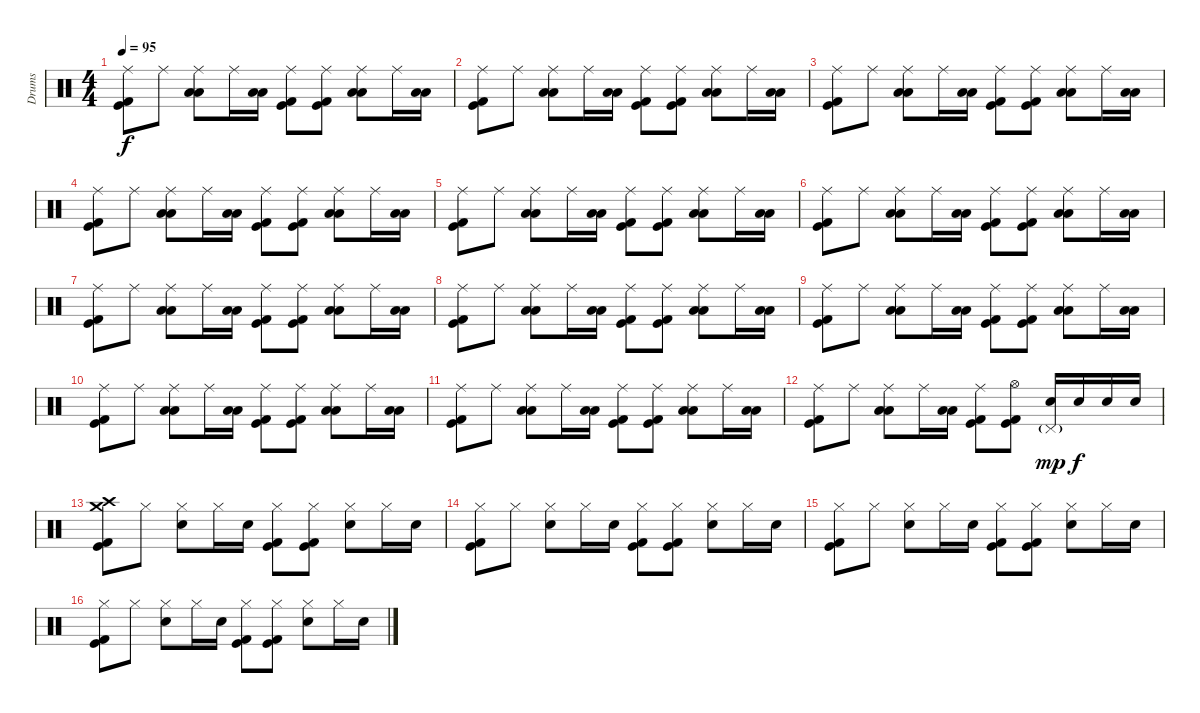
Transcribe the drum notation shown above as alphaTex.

\track ("Drums" "Drums") {instrument percussion}
\staff {score}
\articulation defaults
\ts (4 4)
\tempo 95
\clef neutral
\ks c
("Ride (middle)" "Kick (hit) 2" "Kick (hit)").8{dy f} "Ride (middle)".8 ("Ride (middle)" "Low Floor Tom (hit)" "Low Tom (hit)").8 "Ride (middle)".16 ("Low Floor Tom (hit)" "Low Tom (hit)").16 ("Ride (middle)" "Kick (hit) 2" "Kick (hit)").8 ("Ride (middle)" "Kick (hit) 2" "Kick (hit)").8 ("Ride (middle)" "Low Floor Tom (hit)" "Low Tom (hit)").8 "Ride (middle)".16 ("Low Floor Tom (hit)" "Low Tom (hit)").16 |
("Ride (middle)" "Kick (hit) 2" "Kick (hit)").8 "Ride (middle)".8 ("Ride (middle)" "Low Floor Tom (hit)" "Low Tom (hit)").8 "Ride (middle)".16 ("Low Floor Tom (hit)" "Low Tom (hit)").16 ("Ride (middle)" "Kick (hit) 2" "Kick (hit)").8 ("Ride (middle)" "Kick (hit) 2" "Kick (hit)").8 ("Ride (middle)" "Low Floor Tom (hit)" "Low Tom (hit)").8 "Ride (middle)".16 ("Low Floor Tom (hit)" "Low Tom (hit)").16 |
("Ride (middle)" "Kick (hit) 2" "Kick (hit)").8 "Ride (middle)".8 ("Ride (middle)" "Low Floor Tom (hit)" "Low Tom (hit)").8 "Ride (middle)".16 ("Low Floor Tom (hit)" "Low Tom (hit)").16 ("Ride (middle)" "Kick (hit) 2" "Kick (hit)").8 ("Ride (middle)" "Kick (hit) 2" "Kick (hit)").8 ("Ride (middle)" "Low Floor Tom (hit)" "Low Tom (hit)").8 "Ride (middle)".16 ("Low Floor Tom (hit)" "Low Tom (hit)").16 |
("Ride (middle)" "Kick (hit) 2" "Kick (hit)").8 "Ride (middle)".8 ("Ride (middle)" "Low Floor Tom (hit)" "Low Tom (hit)").8 "Ride (middle)".16 ("Low Floor Tom (hit)" "Low Tom (hit)").16 ("Ride (middle)" "Kick (hit) 2" "Kick (hit)").8 ("Ride (middle)" "Kick (hit) 2" "Kick (hit)").8 ("Ride (middle)" "Low Floor Tom (hit)" "Low Tom (hit)").8 "Ride (middle)".16 ("Low Floor Tom (hit)" "Low Tom (hit)").16 |
("Ride (middle)" "Kick (hit) 2" "Kick (hit)").8 "Ride (middle)".8 ("Ride (middle)" "Low Floor Tom (hit)" "Low Tom (hit)").8 "Ride (middle)".16 ("Low Floor Tom (hit)" "Low Tom (hit)").16 ("Ride (middle)" "Kick (hit) 2" "Kick (hit)").8 ("Ride (middle)" "Kick (hit) 2" "Kick (hit)").8 ("Ride (middle)" "Low Floor Tom (hit)" "Low Tom (hit)").8 "Ride (middle)".16 ("Low Floor Tom (hit)" "Low Tom (hit)").16 |
("Ride (middle)" "Kick (hit) 2" "Kick (hit)").8 "Ride (middle)".8 ("Ride (middle)" "Low Floor Tom (hit)" "Low Tom (hit)").8 "Ride (middle)".16 ("Low Floor Tom (hit)" "Low Tom (hit)").16 ("Ride (middle)" "Kick (hit) 2" "Kick (hit)").8 ("Ride (middle)" "Kick (hit) 2" "Kick (hit)").8 ("Ride (middle)" "Low Floor Tom (hit)" "Low Tom (hit)").8 "Ride (middle)".16 ("Low Floor Tom (hit)" "Low Tom (hit)").16 |
("Ride (middle)" "Kick (hit) 2" "Kick (hit)").8 "Ride (middle)".8 ("Ride (middle)" "Low Floor Tom (hit)" "Low Tom (hit)").8 "Ride (middle)".16 ("Low Floor Tom (hit)" "Low Tom (hit)").16 ("Ride (middle)" "Kick (hit) 2" "Kick (hit)").8 ("Ride (middle)" "Kick (hit) 2" "Kick (hit)").8 ("Ride (middle)" "Low Floor Tom (hit)" "Low Tom (hit)").8 "Ride (middle)".16 ("Low Floor Tom (hit)" "Low Tom (hit)").16 |
("Ride (middle)" "Kick (hit) 2" "Kick (hit)").8 "Ride (middle)".8 ("Ride (middle)" "Low Floor Tom (hit)" "Low Tom (hit)").8 "Ride (middle)".16 ("Low Floor Tom (hit)" "Low Tom (hit)").16 ("Ride (middle)" "Kick (hit) 2" "Kick (hit)").8 ("Ride (middle)" "Kick (hit) 2" "Kick (hit)").8 ("Ride (middle)" "Low Floor Tom (hit)" "Low Tom (hit)").8 "Ride (middle)".16 ("Low Floor Tom (hit)" "Low Tom (hit)").16 |
("Ride (middle)" "Kick (hit) 2" "Kick (hit)").8 "Ride (middle)".8 ("Ride (middle)" "Low Floor Tom (hit)" "Low Tom (hit)").8 "Ride (middle)".16 ("Low Floor Tom (hit)" "Low Tom (hit)").16 ("Ride (middle)" "Kick (hit) 2" "Kick (hit)").8 ("Ride (middle)" "Kick (hit) 2" "Kick (hit)").8 ("Ride (middle)" "Low Floor Tom (hit)" "Low Tom (hit)").8 "Ride (middle)".16 ("Low Floor Tom (hit)" "Low Tom (hit)").16 |
("Ride (middle)" "Kick (hit) 2" "Kick (hit)").8 "Ride (middle)".8 ("Ride (middle)" "Low Floor Tom (hit)" "Low Tom (hit)").8 "Ride (middle)".16 ("Low Floor Tom (hit)" "Low Tom (hit)").16 ("Ride (middle)" "Kick (hit) 2" "Kick (hit)").8 ("Ride (middle)" "Kick (hit) 2" "Kick (hit)").8 ("Ride (middle)" "Low Floor Tom (hit)" "Low Tom (hit)").8 "Ride (middle)".16 ("Low Floor Tom (hit)" "Low Tom (hit)").16 |
("Ride (middle)" "Kick (hit) 2" "Kick (hit)").8 "Ride (middle)".8 ("Ride (middle)" "Low Floor Tom (hit)" "Low Tom (hit)").8 "Ride (middle)".16 ("Low Floor Tom (hit)" "Low Tom (hit)").16 ("Ride (middle)" "Kick (hit) 2" "Kick (hit)").8 ("Ride (middle)" "Kick (hit) 2" "Kick (hit)").8 ("Ride (middle)" "Low Floor Tom (hit)" "Low Tom (hit)").8 "Ride (middle)".16 ("Low Floor Tom (hit)" "Low Tom (hit)").16 |
("Ride (middle)" "Kick (hit) 2" "Kick (hit)").8 "Ride (middle)".8 ("Ride (middle)" "Low Floor Tom (hit)" "Low Tom (hit)").8 "Ride (middle)".16 ("Low Floor Tom (hit)" "Low Tom (hit)").16 ("Ride (middle)" "Kick (hit) 2" "Kick (hit)").8 ("Hi-Hat (open)" "Kick (hit) 2" "Kick (hit)").8 ("Pedal Hi-Hat (hit)"{g} "Snare (hit) 2").16{dy mp} "Snare (hit) 2".16{dy f} "Snare (hit) 2".16 "Snare (hit) 2".16 |
("Crash high (hit)" "Crash medium (hit)" "Kick (hit) 2" "Kick (hit)").8 "Hi-Hat (closed)".8 ("Hi-Hat (closed)" "Snare (hit) 2").8 "Hi-Hat (closed)".16 "Snare (hit) 2".16 ("Hi-Hat (closed)" "Kick (hit) 2" "Kick (hit)").8 ("Hi-Hat (closed)" "Kick (hit) 2" "Kick (hit)").8 ("Hi-Hat (closed)" "Snare (hit) 2").8 "Hi-Hat (closed)".16 "Snare (hit) 2".16 |
("Hi-Hat (closed)" "Kick (hit) 2" "Kick (hit)").8 "Hi-Hat (closed)".8 ("Hi-Hat (closed)" "Snare (hit) 2").8 "Hi-Hat (closed)".16 "Snare (hit) 2".16 ("Hi-Hat (closed)" "Kick (hit) 2" "Kick (hit)").8 ("Hi-Hat (closed)" "Kick (hit) 2" "Kick (hit)").8 ("Hi-Hat (closed)" "Snare (hit) 2").8 "Hi-Hat (closed)".16 "Snare (hit) 2".16 |
("Hi-Hat (closed)" "Kick (hit) 2" "Kick (hit)").8 "Hi-Hat (closed)".8 ("Hi-Hat (closed)" "Snare (hit) 2").8 "Hi-Hat (closed)".16 "Snare (hit) 2".16 ("Hi-Hat (closed)" "Kick (hit) 2" "Kick (hit)").8 ("Hi-Hat (closed)" "Kick (hit) 2" "Kick (hit)").8 ("Hi-Hat (closed)" "Snare (hit) 2").8 "Hi-Hat (closed)".16 "Snare (hit) 2".16 |
("Hi-Hat (closed)" "Kick (hit) 2" "Kick (hit)").8 "Hi-Hat (closed)".8 ("Hi-Hat (closed)" "Snare (hit) 2").8 "Hi-Hat (closed)".16 "Snare (hit) 2".16 ("Hi-Hat (closed)" "Kick (hit) 2" "Kick (hit)").8 ("Hi-Hat (closed)" "Kick (hit) 2" "Kick (hit)").8 ("Hi-Hat (closed)" "Snare (hit) 2").8 "Hi-Hat (closed)".16 "Snare (hit) 2".16
